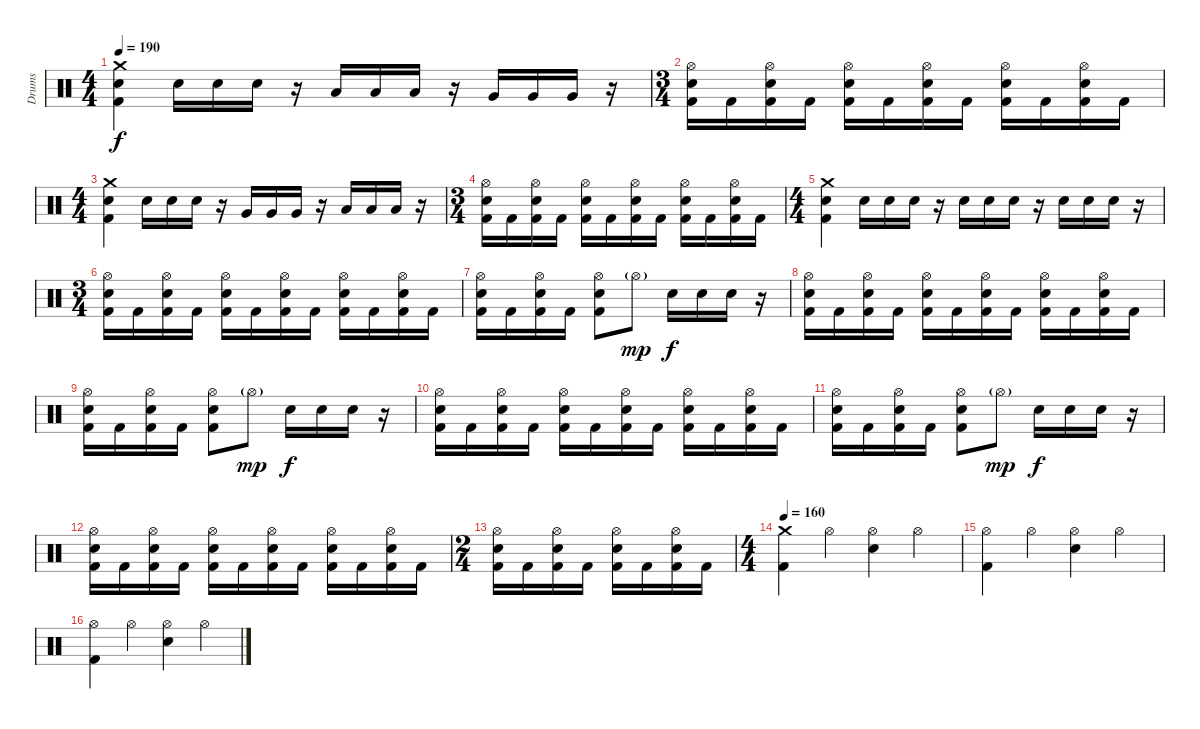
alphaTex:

\track ("Drums" "Drums") {instrument percussion}
\staff {score}
\articulation defaults
\ts (4 4)
\tempo 190
\clef neutral
\ks c
("Crash medium (hit)" "Electric Snare (hit)" "Kick (hit) 2").4{dy f} "Electric Snare (hit)".16 "Electric Snare (hit)".16 "Electric Snare (hit)".16 r.16 "Low Tom (hit)".16 "Low Tom (hit)".16 "Low Tom (hit)".16 r.16 "Very Low Tom (hit)".16 "Very Low Tom (hit)".16 "Very Low Tom (hit)".16 r.16 |
\ts (3 4)
("Hi-Hat (open)" "Electric Snare (hit)" "Kick (hit) 2").16 "Kick (hit) 2".16 ("Hi-Hat (open)" "Electric Snare (hit)" "Kick (hit) 2").16 "Kick (hit) 2".16 ("Hi-Hat (open)" "Electric Snare (hit)" "Kick (hit) 2").16 "Kick (hit) 2".16 ("Hi-Hat (open)" "Electric Snare (hit)" "Kick (hit) 2").16 "Kick (hit) 2".16 ("Hi-Hat (open)" "Electric Snare (hit)" "Kick (hit) 2").16 "Kick (hit) 2".16 ("Hi-Hat (open)" "Electric Snare (hit)" "Kick (hit) 2").16 "Kick (hit) 2".16 |
\ts (4 4)
("Crash medium (hit)" "Electric Snare (hit)" "Kick (hit) 2").4 "Electric Snare (hit)".16 "Electric Snare (hit)".16 "Electric Snare (hit)".16 r.16 "Very Low Tom (hit)".16 "Very Low Tom (hit)".16 "Very Low Tom (hit)".16 r.16 "Low Floor Tom (hit)".16 "Low Floor Tom (hit)".16 "Low Floor Tom (hit)".16 r.16 |
\ts (3 4)
("Hi-Hat (open)" "Electric Snare (hit)" "Kick (hit) 2").16 "Kick (hit) 2".16 ("Hi-Hat (open)" "Electric Snare (hit)" "Kick (hit) 2").16 "Kick (hit) 2".16 ("Hi-Hat (open)" "Electric Snare (hit)" "Kick (hit) 2").16 "Kick (hit) 2".16 ("Hi-Hat (open)" "Electric Snare (hit)" "Kick (hit) 2").16 "Kick (hit) 2".16 ("Hi-Hat (open)" "Electric Snare (hit)" "Kick (hit) 2").16 "Kick (hit) 2".16 ("Hi-Hat (open)" "Electric Snare (hit)" "Kick (hit) 2").16 "Kick (hit) 2".16 |
\ts (4 4)
("Crash medium (hit)" "Electric Snare (hit)" "Kick (hit) 2").4 "Electric Snare (hit)".16 "Electric Snare (hit)".16 "Electric Snare (hit)".16 r.16 "Electric Snare (hit)".16 "Electric Snare (hit)".16 "Electric Snare (hit)".16 r.16 "Electric Snare (hit)".16 "Electric Snare (hit)".16 "Electric Snare (hit)".16 r.16 |
\ts (3 4)
("Hi-Hat (open)" "Electric Snare (hit)" "Kick (hit) 2").16 "Kick (hit) 2".16 ("Hi-Hat (open)" "Electric Snare (hit)" "Kick (hit) 2").16 "Kick (hit) 2".16 ("Hi-Hat (open)" "Electric Snare (hit)" "Kick (hit) 2").16 "Kick (hit) 2".16 ("Hi-Hat (open)" "Electric Snare (hit)" "Kick (hit) 2").16 "Kick (hit) 2".16 ("Hi-Hat (open)" "Electric Snare (hit)" "Kick (hit) 2").16 "Kick (hit) 2".16 ("Hi-Hat (open)" "Electric Snare (hit)" "Kick (hit) 2").16 "Kick (hit) 2".16 |
("Hi-Hat (open)" "Electric Snare (hit)" "Kick (hit) 2").16 "Kick (hit) 2".16 ("Hi-Hat (open)" "Electric Snare (hit)" "Kick (hit) 2").16 "Kick (hit) 2".16 ("Hi-Hat (open)" "Electric Snare (hit)" "Kick (hit) 2").8 "Hi-Hat (open)"{g}.8{dy mp} "Electric Snare (hit)".16{dy f} "Electric Snare (hit)".16 "Electric Snare (hit)".16 r.16 |
("Hi-Hat (open)" "Electric Snare (hit)" "Kick (hit) 2").16 "Kick (hit) 2".16 ("Hi-Hat (open)" "Electric Snare (hit)" "Kick (hit) 2").16 "Kick (hit) 2".16 ("Hi-Hat (open)" "Electric Snare (hit)" "Kick (hit) 2").16 "Kick (hit) 2".16 ("Hi-Hat (open)" "Electric Snare (hit)" "Kick (hit) 2").16 "Kick (hit) 2".16 ("Hi-Hat (open)" "Electric Snare (hit)" "Kick (hit) 2").16 "Kick (hit) 2".16 ("Hi-Hat (open)" "Electric Snare (hit)" "Kick (hit) 2").16 "Kick (hit) 2".16 |
("Hi-Hat (open)" "Electric Snare (hit)" "Kick (hit) 2").16 "Kick (hit) 2".16 ("Hi-Hat (open)" "Electric Snare (hit)" "Kick (hit) 2").16 "Kick (hit) 2".16 ("Hi-Hat (open)" "Electric Snare (hit)" "Kick (hit) 2").8 "Hi-Hat (open)"{g}.8{dy mp} "Electric Snare (hit)".16{dy f} "Electric Snare (hit)".16 "Electric Snare (hit)".16 r.16 |
("Hi-Hat (open)" "Electric Snare (hit)" "Kick (hit) 2").16 "Kick (hit) 2".16 ("Hi-Hat (open)" "Electric Snare (hit)" "Kick (hit) 2").16 "Kick (hit) 2".16 ("Hi-Hat (open)" "Electric Snare (hit)" "Kick (hit) 2").16 "Kick (hit) 2".16 ("Hi-Hat (open)" "Electric Snare (hit)" "Kick (hit) 2").16 "Kick (hit) 2".16 ("Hi-Hat (open)" "Electric Snare (hit)" "Kick (hit) 2").16 "Kick (hit) 2".16 ("Hi-Hat (open)" "Electric Snare (hit)" "Kick (hit) 2").16 "Kick (hit) 2".16 |
("Hi-Hat (open)" "Electric Snare (hit)" "Kick (hit) 2").16 "Kick (hit) 2".16 ("Hi-Hat (open)" "Electric Snare (hit)" "Kick (hit) 2").16 "Kick (hit) 2".16 ("Hi-Hat (open)" "Electric Snare (hit)" "Kick (hit) 2").8 "Hi-Hat (open)"{g}.8{dy mp} "Electric Snare (hit)".16{dy f} "Electric Snare (hit)".16 "Electric Snare (hit)".16 r.16 |
("Hi-Hat (open)" "Electric Snare (hit)" "Kick (hit) 2").16 "Kick (hit) 2".16 ("Hi-Hat (open)" "Electric Snare (hit)" "Kick (hit) 2").16 "Kick (hit) 2".16 ("Hi-Hat (open)" "Electric Snare (hit)" "Kick (hit) 2").16 "Kick (hit) 2".16 ("Hi-Hat (open)" "Electric Snare (hit)" "Kick (hit) 2").16 "Kick (hit) 2".16 ("Hi-Hat (open)" "Electric Snare (hit)" "Kick (hit) 2").16 "Kick (hit) 2".16 ("Hi-Hat (open)" "Electric Snare (hit)" "Kick (hit) 2").16 "Kick (hit) 2".16 |
\ts (2 4)
("Hi-Hat (open)" "Electric Snare (hit)" "Kick (hit) 2").16 "Kick (hit) 2".16 ("Hi-Hat (open)" "Electric Snare (hit)" "Kick (hit) 2").16 "Kick (hit) 2".16 ("Hi-Hat (open)" "Electric Snare (hit)" "Kick (hit) 2").16 "Kick (hit) 2".16 ("Hi-Hat (open)" "Electric Snare (hit)" "Kick (hit) 2").16 "Kick (hit) 2".16 |
\ts (4 4)
\tempo 160
("Crash medium (hit)" "Kick (hit) 2").4 "Hi-Hat (open)".4 ("Hi-Hat (open)" "Electric Snare (hit)").4 "Hi-Hat (open)".4 |
("Hi-Hat (open)" "Kick (hit) 2").4 "Hi-Hat (open)".4 ("Hi-Hat (open)" "Electric Snare (hit)").4 "Hi-Hat (open)".4 |
("Hi-Hat (open)" "Kick (hit) 2").4 "Hi-Hat (open)".4 ("Hi-Hat (open)" "Electric Snare (hit)").4 "Hi-Hat (open)".4
